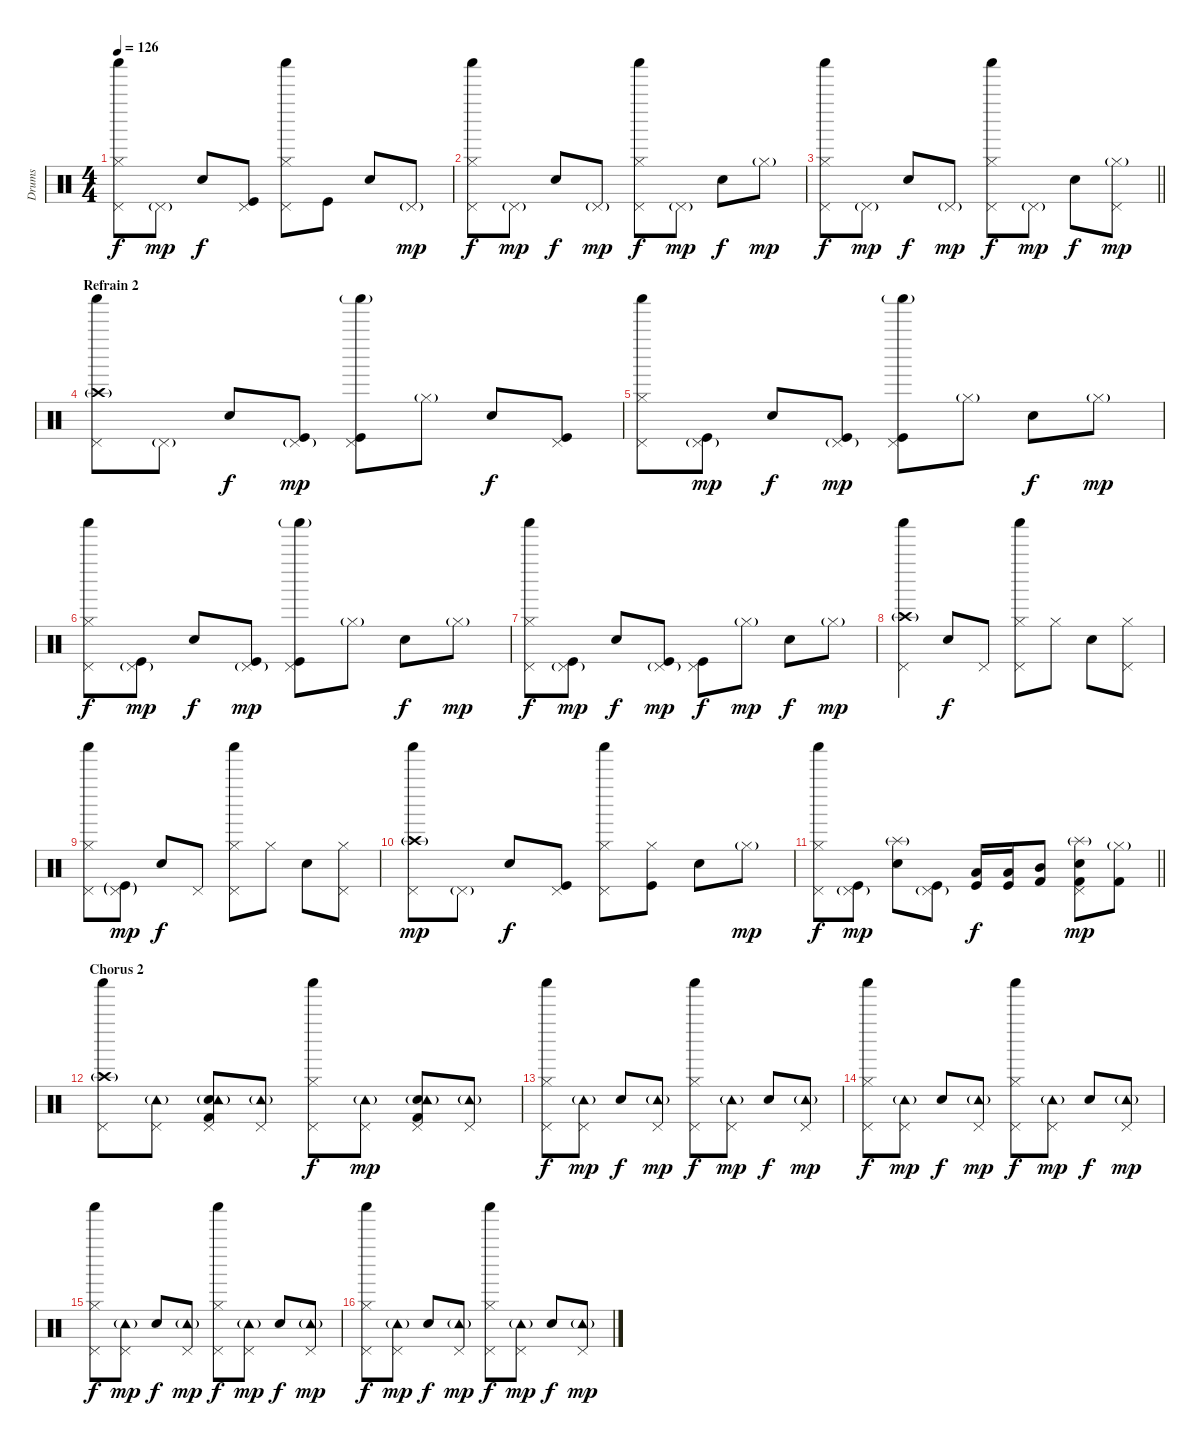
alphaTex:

\track ("Drums" "Drums") {instrument percussion}
\staff {score}
\articulation defaults
\ts (4 4)
\tempo 126
\clef neutral
\ks c
("Hi-Hat (closed)" "Pedal Hi-Hat (hit)" "Shaker (hit)").8{dy f} "Pedal Hi-Hat (hit)"{g}.8{dy mp} "Electric Snare (hit)".8{dy f} ("Pedal Hi-Hat (hit)" "Kick (hit)").8 ("Hi-Hat (closed)" "Pedal Hi-Hat (hit)" "Shaker (hit)").8 "Kick (hit)".8 "Electric Snare (hit)".8 "Pedal Hi-Hat (hit)"{g}.8{dy mp} |
("Hi-Hat (closed)" "Pedal Hi-Hat (hit)" "Shaker (hit)").8{dy f} "Pedal Hi-Hat (hit)"{g}.8{dy mp} "Electric Snare (hit)".8{dy f} "Pedal Hi-Hat (hit)"{g}.8{dy mp} ("Hi-Hat (closed)" "Pedal Hi-Hat (hit)" "Shaker (hit)").8{dy f} "Pedal Hi-Hat (hit)"{g}.8{dy mp} "Electric Snare (hit)".8{dy f} "Hi-Hat (closed)"{g}.8{dy mp} |
\barLineRight lightlight
("Hi-Hat (closed)" "Pedal Hi-Hat (hit)" "Shaker (hit)").8{dy f} "Pedal Hi-Hat (hit)"{g}.8{dy mp} "Electric Snare (hit)".8{dy f} "Pedal Hi-Hat (hit)"{g}.8{dy mp} ("Hi-Hat (closed)" "Pedal Hi-Hat (hit)" "Shaker (hit)").8{dy f} "Pedal Hi-Hat (hit)"{g}.8{dy mp} "Electric Snare (hit)".8{dy f} ("Hi-Hat (closed)"{g} "Pedal Hi-Hat (hit)").8{dy mp} |
\section ("" "Refrain 2")
("Crash high (hit)"{g} "Pedal Hi-Hat (hit)" "Shaker (hit)").8 "Pedal Hi-Hat (hit)"{g}.8 "Electric Snare (hit)".8{dy f} ("Pedal Hi-Hat (hit)"{g} "Kick (hit)").8{dy mp} ("Pedal Hi-Hat (hit)" "Kick (hit)" "Shaker (hit)"{g}).8 "Hi-Hat (closed)"{g}.8 "Electric Snare (hit)".8{dy f} ("Pedal Hi-Hat (hit)" "Kick (hit)").8 |
("Hi-Hat (closed)" "Pedal Hi-Hat (hit)" "Shaker (hit)").8 ("Pedal Hi-Hat (hit)"{g} "Kick (hit)").8{dy mp} "Electric Snare (hit)".8{dy f} ("Pedal Hi-Hat (hit)"{g} "Kick (hit)").8{dy mp} ("Pedal Hi-Hat (hit)" "Kick (hit)" "Shaker (hit)"{g}).8 "Hi-Hat (closed)"{g}.8 "Electric Snare (hit)".8{dy f} "Hi-Hat (closed)"{g}.8{dy mp} |
("Hi-Hat (closed)" "Pedal Hi-Hat (hit)" "Shaker (hit)").8{dy f} ("Pedal Hi-Hat (hit)"{g} "Kick (hit)").8{dy mp} "Electric Snare (hit)".8{dy f} ("Pedal Hi-Hat (hit)"{g} "Kick (hit)").8{dy mp} ("Pedal Hi-Hat (hit)" "Kick (hit)" "Shaker (hit)"{g}).8 "Hi-Hat (closed)"{g}.8 "Electric Snare (hit)".8{dy f} "Hi-Hat (closed)"{g}.8{dy mp} |
("Hi-Hat (closed)" "Pedal Hi-Hat (hit)" "Shaker (hit)").8{dy f} ("Pedal Hi-Hat (hit)"{g} "Kick (hit)").8{dy mp} "Electric Snare (hit)".8{dy f} ("Pedal Hi-Hat (hit)"{g} "Kick (hit)").8{dy mp} ("Pedal Hi-Hat (hit)" "Kick (hit)").8{dy f} "Hi-Hat (closed)"{g}.8{dy mp} "Electric Snare (hit)".8{dy f} "Hi-Hat (closed)"{g}.8{dy mp} |
("Crash high (hit)"{g} "Pedal Hi-Hat (hit)" "Shaker (hit)").4 "Electric Snare (hit)".8{dy f} "Pedal Hi-Hat (hit)".8 ("Hi-Hat (closed)" "Pedal Hi-Hat (hit)" "Shaker (hit)").8 "Hi-Hat (closed)".8 "Electric Snare (hit)".8 ("Hi-Hat (closed)" "Pedal Hi-Hat (hit)").8 |
("Hi-Hat (closed)" "Pedal Hi-Hat (hit)" "Shaker (hit)").8 ("Pedal Hi-Hat (hit)"{g} "Kick (hit)"{g}).8{dy mp} "Electric Snare (hit)".8{dy f} "Pedal Hi-Hat (hit)".8 ("Hi-Hat (closed)" "Pedal Hi-Hat (hit)" "Shaker (hit)").8 "Hi-Hat (closed)".8 "Electric Snare (hit)".8 ("Hi-Hat (closed)" "Pedal Hi-Hat (hit)").8 |
("Crash high (hit)"{g} "Pedal Hi-Hat (hit)" "Shaker (hit)").8{dy mp} "Pedal Hi-Hat (hit)"{g}.8 "Electric Snare (hit)".8{dy f} ("Pedal Hi-Hat (hit)" "Kick (hit)").8 ("Hi-Hat (closed)" "Pedal Hi-Hat (hit)" "Shaker (hit)").8 ("Hi-Hat (closed)" "Kick (hit)").8 "Electric Snare (hit)".8 "Hi-Hat (closed)"{g}.8{dy mp} |
\barLineRight lightlight
("Hi-Hat (closed)" "Pedal Hi-Hat (hit)" "Shaker (hit)").8{dy f} ("Pedal Hi-Hat (hit)"{g} "Kick (hit)").8{dy mp} ("Electric Snare (hit)" "Splash (hit)"{g}).8 ("Pedal Hi-Hat (hit)"{g} "Kick (hit)").8 ("Low Tom (hit)" "Kick (hit)").16{dy f} ("Low Tom (hit)" "Kick (hit)").16 ("Mid Tom (hit)" "Kick (hit) 2").8 ("Pedal Hi-Hat (hit)" "Electric Snare (hit)" "Kick (hit) 2" "Splash (hit)"{g}).8{dy mp} ("Hi-Hat (closed)"{g} "Kick (hit) 2").8 |
\section ("" "Chorus 2")
("Crash high (hit)"{g} "Pedal Hi-Hat (hit)" "Shaker (hit)").8 ("Pedal Hi-Hat (hit)" "Tambourine (hit)"{g}).8 ("Pedal Hi-Hat (hit)" "Electric Snare (hit)" "Kick (hit) 2" "Tambourine (hit)"{g}).8 ("Pedal Hi-Hat (hit)" "Tambourine (hit)"{g}).8 ("Hi-Hat (closed)" "Pedal Hi-Hat (hit)" "Shaker (hit)").8{dy f} ("Pedal Hi-Hat (hit)" "Tambourine (hit)"{g}).8{dy mp} ("Pedal Hi-Hat (hit)" "Electric Snare (hit)" "Kick (hit) 2" "Tambourine (hit)"{g}).8 ("Pedal Hi-Hat (hit)" "Tambourine (hit)"{g}).8 |
("Hi-Hat (closed)" "Pedal Hi-Hat (hit)" "Shaker (hit)").8{dy f} ("Pedal Hi-Hat (hit)" "Tambourine (hit)"{g}).8{dy mp} "Electric Snare (hit)".8{dy f} ("Pedal Hi-Hat (hit)" "Tambourine (hit)"{g}).8{dy mp} ("Hi-Hat (closed)" "Pedal Hi-Hat (hit)" "Shaker (hit)").8{dy f} ("Pedal Hi-Hat (hit)" "Tambourine (hit)"{g}).8{dy mp} "Electric Snare (hit)".8{dy f} ("Pedal Hi-Hat (hit)" "Tambourine (hit)"{g}).8{dy mp} |
("Hi-Hat (closed)" "Pedal Hi-Hat (hit)" "Shaker (hit)").8{dy f} ("Pedal Hi-Hat (hit)" "Tambourine (hit)"{g}).8{dy mp} "Electric Snare (hit)".8{dy f} ("Pedal Hi-Hat (hit)" "Tambourine (hit)"{g}).8{dy mp} ("Hi-Hat (closed)" "Pedal Hi-Hat (hit)" "Shaker (hit)").8{dy f} ("Pedal Hi-Hat (hit)" "Tambourine (hit)"{g}).8{dy mp} "Electric Snare (hit)".8{dy f} ("Pedal Hi-Hat (hit)" "Tambourine (hit)"{g}).8{dy mp} |
("Hi-Hat (closed)" "Pedal Hi-Hat (hit)" "Shaker (hit)").8{dy f} ("Pedal Hi-Hat (hit)" "Tambourine (hit)"{g}).8{dy mp} "Electric Snare (hit)".8{dy f} ("Pedal Hi-Hat (hit)" "Tambourine (hit)"{g}).8{dy mp} ("Hi-Hat (closed)" "Pedal Hi-Hat (hit)" "Shaker (hit)").8{dy f} ("Pedal Hi-Hat (hit)" "Tambourine (hit)"{g}).8{dy mp} "Electric Snare (hit)".8{dy f} ("Pedal Hi-Hat (hit)" "Tambourine (hit)"{g}).8{dy mp} |
("Hi-Hat (closed)" "Pedal Hi-Hat (hit)" "Shaker (hit)").8{dy f} ("Pedal Hi-Hat (hit)" "Tambourine (hit)"{g}).8{dy mp} "Electric Snare (hit)".8{dy f} ("Pedal Hi-Hat (hit)" "Tambourine (hit)"{g}).8{dy mp} ("Hi-Hat (closed)" "Pedal Hi-Hat (hit)" "Shaker (hit)").8{dy f} ("Pedal Hi-Hat (hit)" "Tambourine (hit)"{g}).8{dy mp} "Electric Snare (hit)".8{dy f} ("Pedal Hi-Hat (hit)" "Tambourine (hit)"{g}).8{dy mp}
